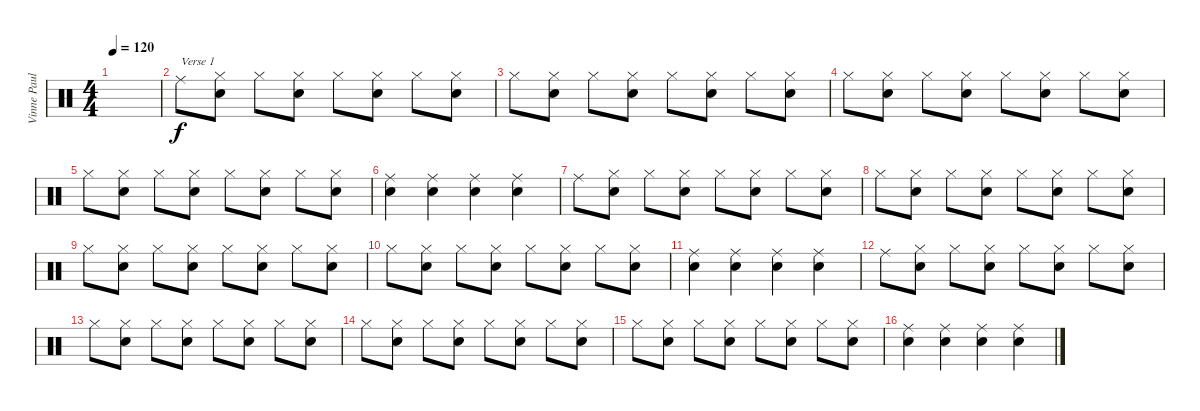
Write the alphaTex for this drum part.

\track ("Vinne Paul cymbals and tom" "Vinne Paul") {instrument percussion}
\staff {score}
\articulation defaults
\ts (4 4)
\tempo 120
\clef neutral
\ks c
|
"Ride (middle)".8{txt "Verse 1"} ("Hi-Hat (closed)" "Electric Snare (hit)").8 "Hi-Hat (closed)".8 ("Hi-Hat (closed)" "Electric Snare (hit)").8 "Hi-Hat (closed)".8 ("Hi-Hat (closed)" "Electric Snare (hit)").8 "Hi-Hat (closed)".8 ("Hi-Hat (closed)" "Electric Snare (hit)").8 |
"Hi-Hat (closed)".8 ("Hi-Hat (closed)" "Electric Snare (hit)").8 "Hi-Hat (closed)".8 ("Hi-Hat (closed)" "Electric Snare (hit)").8 "Hi-Hat (closed)".8 ("Hi-Hat (closed)" "Electric Snare (hit)").8 "Hi-Hat (closed)".8 ("Hi-Hat (closed)" "Electric Snare (hit)").8 |
"Hi-Hat (closed)".8 ("Hi-Hat (closed)" "Electric Snare (hit)").8 "Hi-Hat (closed)".8 ("Hi-Hat (closed)" "Electric Snare (hit)").8 "Hi-Hat (closed)".8 ("Hi-Hat (closed)" "Electric Snare (hit)").8 "Hi-Hat (closed)".8 ("Hi-Hat (closed)" "Electric Snare (hit)").8 |
"Hi-Hat (closed)".8 ("Hi-Hat (closed)" "Electric Snare (hit)").8 "Hi-Hat (closed)".8 ("Hi-Hat (closed)" "Electric Snare (hit)").8 "Hi-Hat (closed)".8 ("Hi-Hat (closed)" "Electric Snare (hit)").8 "Hi-Hat (closed)".8 ("Hi-Hat (closed)" "Electric Snare (hit)").8 |
("Ride (middle)" "Electric Snare (hit)").4 ("Ride (middle)" "Electric Snare (hit)").4 ("Ride (middle)" "Electric Snare (hit)").4 ("Ride (middle)" "Electric Snare (hit)").4 |
"Ride (middle)".8 ("Hi-Hat (closed)" "Electric Snare (hit)").8 "Hi-Hat (closed)".8 ("Hi-Hat (closed)" "Electric Snare (hit)").8 "Hi-Hat (closed)".8 ("Hi-Hat (closed)" "Electric Snare (hit)").8 "Hi-Hat (closed)".8 ("Hi-Hat (closed)" "Electric Snare (hit)").8 |
"Hi-Hat (closed)".8 ("Hi-Hat (closed)" "Electric Snare (hit)").8 "Hi-Hat (closed)".8 ("Hi-Hat (closed)" "Electric Snare (hit)").8 "Hi-Hat (closed)".8 ("Hi-Hat (closed)" "Electric Snare (hit)").8 "Hi-Hat (closed)".8 ("Hi-Hat (closed)" "Electric Snare (hit)").8 |
"Hi-Hat (closed)".8 ("Hi-Hat (closed)" "Electric Snare (hit)").8 "Hi-Hat (closed)".8 ("Hi-Hat (closed)" "Electric Snare (hit)").8 "Hi-Hat (closed)".8 ("Hi-Hat (closed)" "Electric Snare (hit)").8 "Hi-Hat (closed)".8 ("Hi-Hat (closed)" "Electric Snare (hit)").8 |
"Hi-Hat (closed)".8 ("Hi-Hat (closed)" "Electric Snare (hit)").8 "Hi-Hat (closed)".8 ("Hi-Hat (closed)" "Electric Snare (hit)").8 "Hi-Hat (closed)".8 ("Hi-Hat (closed)" "Electric Snare (hit)").8 "Hi-Hat (closed)".8 ("Hi-Hat (closed)" "Electric Snare (hit)").8 |
("Ride (middle)" "Electric Snare (hit)").4 ("Ride (middle)" "Electric Snare (hit)").4 ("Ride (middle)" "Electric Snare (hit)").4 ("Ride (middle)" "Electric Snare (hit)").4 |
"Ride (middle)".8 ("Hi-Hat (closed)" "Electric Snare (hit)").8 "Hi-Hat (closed)".8 ("Hi-Hat (closed)" "Electric Snare (hit)").8 "Hi-Hat (closed)".8 ("Hi-Hat (closed)" "Electric Snare (hit)").8 "Hi-Hat (closed)".8 ("Hi-Hat (closed)" "Electric Snare (hit)").8 |
"Hi-Hat (closed)".8 ("Hi-Hat (closed)" "Electric Snare (hit)").8 "Hi-Hat (closed)".8 ("Hi-Hat (closed)" "Electric Snare (hit)").8 "Hi-Hat (closed)".8 ("Hi-Hat (closed)" "Electric Snare (hit)").8 "Hi-Hat (closed)".8 ("Hi-Hat (closed)" "Electric Snare (hit)").8 |
"Hi-Hat (closed)".8 ("Hi-Hat (closed)" "Electric Snare (hit)").8 "Hi-Hat (closed)".8 ("Hi-Hat (closed)" "Electric Snare (hit)").8 "Hi-Hat (closed)".8 ("Hi-Hat (closed)" "Electric Snare (hit)").8 "Hi-Hat (closed)".8 ("Hi-Hat (closed)" "Electric Snare (hit)").8 |
"Hi-Hat (closed)".8 ("Hi-Hat (closed)" "Electric Snare (hit)").8 "Hi-Hat (closed)".8 ("Hi-Hat (closed)" "Electric Snare (hit)").8 "Hi-Hat (closed)".8 ("Hi-Hat (closed)" "Electric Snare (hit)").8 "Hi-Hat (closed)".8 ("Hi-Hat (closed)" "Electric Snare (hit)").8 |
("Ride (middle)" "Electric Snare (hit)").4 ("Ride (middle)" "Electric Snare (hit)").4 ("Ride (middle)" "Electric Snare (hit)").4 ("Ride (middle)" "Electric Snare (hit)").4
